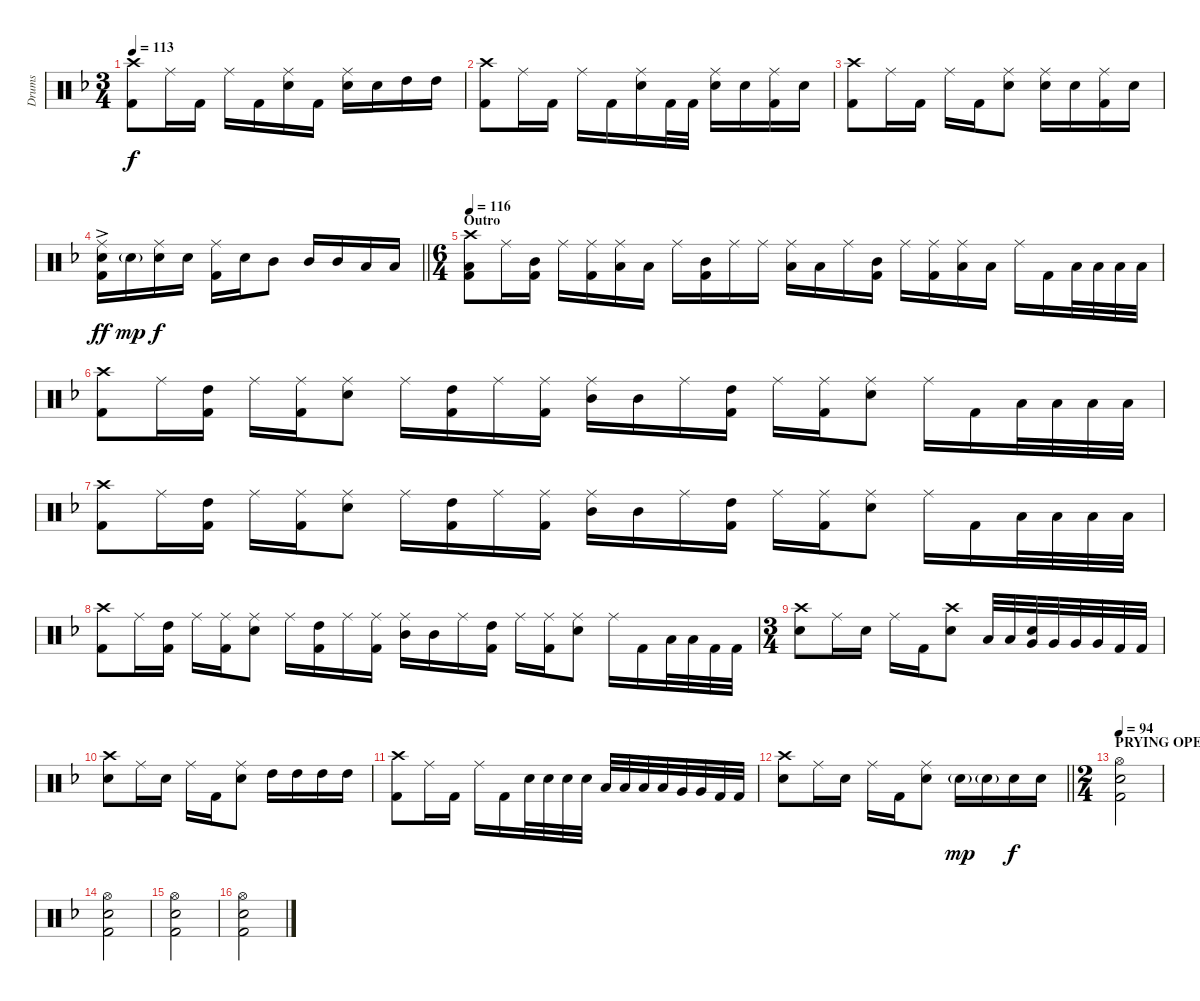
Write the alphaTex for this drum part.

\track ("Drums" "Drums") {instrument percussion}
\staff {score}
\articulation defaults
\ts (3 4)
\tempo 113
\clef neutral
\ks dminor
("Crash high (hit)" "Kick (hit) 2").8{dy f} "Ride (middle)".16 "Kick (hit) 2".16 "Ride (middle)".16 "Kick (hit) 2".16 ("Ride (middle)" "Snare (hit) 2").16 "Kick (hit) 2".16 ("Ride (middle)" "Snare (hit) 2").16 "Snare (hit) 2".16 "High Tom (hit)".16 "High Tom (hit)".16 |
("Crash high (hit)" "Kick (hit) 2").8 "Ride (middle)".16 "Kick (hit) 2".16 "Ride (middle)".16 "Kick (hit) 2".16 ("Ride (middle)" "Snare (hit) 2").16 "Kick (hit) 2".32 "Kick (hit) 2".32 ("Ride (middle)" "Snare (hit) 2").16 "Snare (hit) 2".16 ("Ride (middle)" "Kick (hit) 2").16 "Snare (hit) 2".16 |
("Crash high (hit)" "Kick (hit) 2").8 "Ride (middle)".16 "Kick (hit) 2".16 "Ride (middle)".16 "Kick (hit) 2".16 ("Ride (middle)" "Snare (hit) 2").8 ("Ride (middle)" "Snare (hit) 2").16 "Snare (hit) 2".16 ("Ride (middle)" "Kick (hit) 2").16 "Snare (hit) 2".16 |
\barLineRight lightlight
("Ride (middle)"{ac} "Snare (hit) 2" "Kick (hit) 2").16{dy ff} "Snare (hit) 2"{g}.16{dy mp} ("Ride (middle)" "Snare (hit) 2").16{dy f} "Snare (hit) 2".16 ("Ride (middle)" "Kick (hit) 2").16 "Snare (hit) 2".16 "Mid Tom (hit)".8 "Mid Tom (hit)".16 "Mid Tom (hit)".16 "Low Tom (hit)".16 "Low Tom (hit)".16 |
\ts (6 4)
\section ("" "Outro")
\tempo 116
("Crash high (hit)" "Low Tom (hit)" "Kick (hit) 2").8 "Ride (middle)".16 ("Mid Tom (hit)" "Kick (hit) 2").16 "Ride (middle)".16 ("Ride (middle)" "Kick (hit) 2").16 ("Ride (middle)" "Low Tom (hit)").16 "Low Tom (hit)".16 "Ride (middle)".16 ("Mid Tom (hit)" "Kick (hit) 2").16 "Ride (middle)".16 "Ride (middle)".16 ("Ride (middle)" "Low Tom (hit)").16 "Low Tom (hit)".16 "Ride (middle)".16 ("Mid Tom (hit)" "Kick (hit) 2").16 "Ride (middle)".16 ("Ride (middle)" "Kick (hit) 2").16 ("Ride (middle)" "Low Tom (hit)").16 "Low Tom (hit)".16 "Ride (middle)".16 "Kick (hit) 2".16 "Low Tom (hit)".32 "Low Tom (hit)".32 "Low Tom (hit)".32 "Low Tom (hit)".32 |
("Crash high (hit)" "Kick (hit) 2").8 "Ride (middle)".16 ("High Tom (hit)" "Kick (hit) 2").16 "Ride (middle)".16 ("Ride (middle)" "Kick (hit) 2").16 ("Ride (middle)" "Snare (hit) 2").8 "Ride (middle)".16 ("High Tom (hit)" "Kick (hit) 2").16 "Ride (middle)".16 ("Ride (middle)" "Kick (hit) 2").16 ("Ride (middle)" "Mid Tom (hit)").16 "Mid Tom (hit)".16 "Ride (middle)".16 ("High Tom (hit)" "Kick (hit) 2").16 "Ride (middle)".16 ("Ride (middle)" "Kick (hit) 2").16 ("Ride (middle)" "Snare (hit) 2").8 "Ride (middle)".16 "Kick (hit) 2".16 "Low Tom (hit)".32 "Low Tom (hit)".32 "Low Tom (hit)".32 "Low Tom (hit)".32 |
("Crash high (hit)" "Kick (hit) 2").8 "Ride (middle)".16 ("High Tom (hit)" "Kick (hit) 2").16 "Ride (middle)".16 ("Ride (middle)" "Kick (hit) 2").16 ("Ride (middle)" "Snare (hit) 2").8 "Ride (middle)".16 ("High Tom (hit)" "Kick (hit) 2").16 "Ride (middle)".16 ("Ride (middle)" "Kick (hit) 2").16 ("Ride (middle)" "Mid Tom (hit)").16 "Mid Tom (hit)".16 "Ride (middle)".16 ("High Tom (hit)" "Kick (hit) 2").16 "Ride (middle)".16 ("Ride (middle)" "Kick (hit) 2").16 ("Ride (middle)" "Snare (hit) 2").8 "Ride (middle)".16 "Kick (hit) 2".16 "Low Tom (hit)".32 "Low Tom (hit)".32 "Low Tom (hit)".32 "Low Tom (hit)".32 |
("Crash high (hit)" "Kick (hit) 2").8 "Ride (middle)".16 ("High Tom (hit)" "Kick (hit) 2").16 "Ride (middle)".16 ("Ride (middle)" "Kick (hit) 2").16 ("Ride (middle)" "Snare (hit) 2").8 "Ride (middle)".16 ("High Tom (hit)" "Kick (hit) 2").16 "Ride (middle)".16 ("Ride (middle)" "Kick (hit) 2").16 ("Ride (middle)" "Mid Tom (hit)").16 "Mid Tom (hit)".16 "Ride (middle)".16 ("High Tom (hit)" "Kick (hit) 2").16 "Ride (middle)".16 ("Ride (middle)" "Kick (hit) 2").16 ("Ride (middle)" "Snare (hit) 2").8 "Ride (middle)".16 "Kick (hit) 2".16 "Low Tom (hit)".32 "Low Tom (hit)".32 "Kick (hit) 2".32 "Kick (hit) 2".32 |
\ts (3 4)
("Crash high (hit)" "Snare (hit) 2").8 "Ride (middle)".16 "Snare (hit) 2".16 "Ride (middle)".16 "Kick (hit) 2".16 ("Crash high (hit)" "Snare (hit) 2").8 "Low Tom (hit)".32 "Low Tom (hit)".32 ("Snare (hit)" "Very Low Tom (hit)").32 "Very Low Tom (hit)".32 "Very Low Tom (hit)".32 "Very Low Tom (hit)".32 "Kick (hit) 2".32 "Kick (hit) 2".32 |
("Crash high (hit)" "Snare (hit) 2").8 "Ride (middle)".16 "Snare (hit) 2".16 "Ride (middle)".16 "Kick (hit) 2".16 ("Ride (middle)" "Snare (hit) 2").8 "High Tom (hit)".16 "High Tom (hit)".16 "High Tom (hit)".16 "High Tom (hit)".16 |
("Crash high (hit)" "Kick (hit) 2").8 "Ride (middle)".16 "Kick (hit) 2".16 "Ride (middle)".16 "Kick (hit) 2".16 "Snare (hit) 2".32 "Snare (hit) 2".32 "Snare (hit) 2".32 "Snare (hit) 2".32 "Low Tom (hit)".32 "Low Tom (hit)".32 "Low Tom (hit)".32 "Low Tom (hit)".32 "Very Low Tom (hit)".32 "Very Low Tom (hit)".32 "Kick (hit) 2".32 "Kick (hit) 2".32 |
\barLineRight lightlight
("Crash high (hit)" "Snare (hit) 2").8 "Ride (middle)".16 "Snare (hit) 2".16 "Ride (middle)".16 "Kick (hit) 2".16 ("Ride (middle)" "Snare (hit) 2").8 "Snare (hit) 2"{g}.16{dy mp} "Snare (hit) 2"{g}.16 "Snare (hit) 2".16{dy f} "Snare (hit) 2".16 |
\ts (2 4)
\section ("" "PRYING OPEN MY THIRD EYE")
\tempo 94
("Hi-Hat (open)" "Snare (hit) 2" "Kick (hit) 2").2 |
("Hi-Hat (open)" "Snare (hit) 2" "Kick (hit) 2").2 |
("Hi-Hat (open)" "Snare (hit) 2" "Kick (hit) 2").2 |
("Hi-Hat (open)" "Snare (hit) 2" "Kick (hit) 2").2
